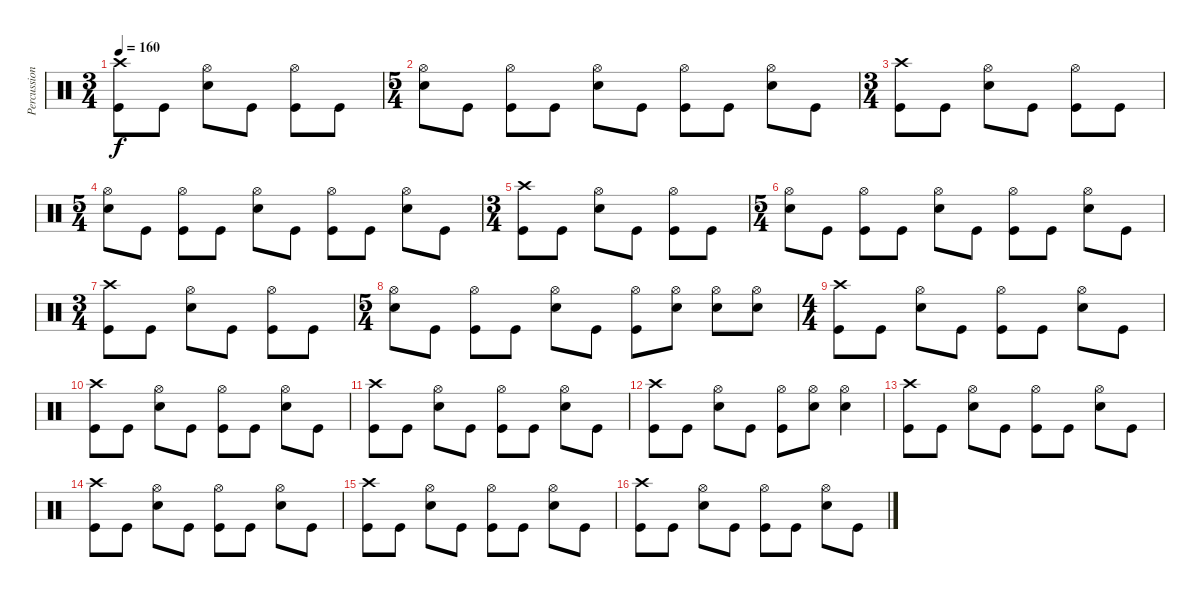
\track ("Percussion" "Percussion") {instrument percussion}
\staff {score}
\articulation defaults
\ts (3 4)
\tempo 160
\clef neutral
\ks c
("Crash high (hit)" "Kick (hit)").8{dy f} "Kick (hit)".8 ("Hi-Hat (open)" "Snare (hit) 2").8 "Kick (hit)".8 ("Hi-Hat (open)" "Kick (hit)").8 "Kick (hit)".8 |
\ts (5 4)
("Hi-Hat (open)" "Snare (hit) 2").8 "Kick (hit)".8 ("Hi-Hat (open)" "Kick (hit)").8 "Kick (hit)".8 ("Hi-Hat (open)" "Snare (hit) 2").8 "Kick (hit)".8 ("Hi-Hat (open)" "Kick (hit)").8 "Kick (hit)".8 ("Hi-Hat (open)" "Snare (hit) 2").8 "Kick (hit)".8 |
\ts (3 4)
("Crash high (hit)" "Kick (hit)").8 "Kick (hit)".8 ("Hi-Hat (open)" "Snare (hit) 2").8 "Kick (hit)".8 ("Hi-Hat (open)" "Kick (hit)").8 "Kick (hit)".8 |
\ts (5 4)
("Hi-Hat (open)" "Snare (hit) 2").8 "Kick (hit)".8 ("Hi-Hat (open)" "Kick (hit)").8 "Kick (hit)".8 ("Hi-Hat (open)" "Snare (hit) 2").8 "Kick (hit)".8 ("Hi-Hat (open)" "Kick (hit)").8 "Kick (hit)".8 ("Hi-Hat (open)" "Snare (hit) 2").8 "Kick (hit)".8 |
\ts (3 4)
("Crash high (hit)" "Kick (hit)").8 "Kick (hit)".8 ("Hi-Hat (open)" "Snare (hit) 2").8 "Kick (hit)".8 ("Hi-Hat (open)" "Kick (hit)").8 "Kick (hit)".8 |
\ts (5 4)
("Hi-Hat (open)" "Snare (hit) 2").8 "Kick (hit)".8 ("Hi-Hat (open)" "Kick (hit)").8 "Kick (hit)".8 ("Hi-Hat (open)" "Snare (hit) 2").8 "Kick (hit)".8 ("Hi-Hat (open)" "Kick (hit)").8 "Kick (hit)".8 ("Hi-Hat (open)" "Snare (hit) 2").8 "Kick (hit)".8 |
\ts (3 4)
("Crash high (hit)" "Kick (hit)").8 "Kick (hit)".8 ("Hi-Hat (open)" "Snare (hit) 2").8 "Kick (hit)".8 ("Hi-Hat (open)" "Kick (hit)").8 "Kick (hit)".8 |
\ts (5 4)
("Hi-Hat (open)" "Snare (hit) 2").8 "Kick (hit)".8 ("Hi-Hat (open)" "Kick (hit)").8 "Kick (hit)".8 ("Hi-Hat (open)" "Snare (hit) 2").8 "Kick (hit)".8 ("Hi-Hat (open)" "Kick (hit)").8 ("Hi-Hat (open)" "Snare (hit) 2").8 ("Hi-Hat (open)" "Snare (hit) 2").8 ("Hi-Hat (open)" "Snare (hit) 2").8 |
\ts (4 4)
("Crash high (hit)" "Kick (hit)").8 "Kick (hit)".8 ("Hi-Hat (open)" "Snare (hit) 2").8 "Kick (hit)".8 ("Hi-Hat (open)" "Kick (hit)").8 "Kick (hit)".8 ("Hi-Hat (open)" "Snare (hit) 2").8 "Kick (hit)".8 |
("Crash high (hit)" "Kick (hit)").8 "Kick (hit)".8 ("Hi-Hat (open)" "Snare (hit) 2").8 "Kick (hit)".8 ("Hi-Hat (open)" "Kick (hit)").8 "Kick (hit)".8 ("Hi-Hat (open)" "Snare (hit) 2").8 "Kick (hit)".8 |
("Crash high (hit)" "Kick (hit)").8 "Kick (hit)".8 ("Hi-Hat (open)" "Snare (hit) 2").8 "Kick (hit)".8 ("Hi-Hat (open)" "Kick (hit)").8 "Kick (hit)".8 ("Hi-Hat (open)" "Snare (hit) 2").8 "Kick (hit)".8 |
("Crash high (hit)" "Kick (hit)").8 "Kick (hit)".8 ("Hi-Hat (open)" "Snare (hit) 2").8 "Kick (hit)".8 ("Hi-Hat (open)" "Kick (hit)").8 ("Hi-Hat (open)" "Snare (hit) 2").8 ("Hi-Hat (open)" "Snare (hit) 2").4 |
("Crash high (hit)" "Kick (hit)").8 "Kick (hit)".8 ("Hi-Hat (open)" "Snare (hit) 2").8 "Kick (hit)".8 ("Hi-Hat (open)" "Kick (hit)").8 "Kick (hit)".8 ("Hi-Hat (open)" "Snare (hit) 2").8 "Kick (hit)".8 |
("Crash high (hit)" "Kick (hit)").8 "Kick (hit)".8 ("Hi-Hat (open)" "Snare (hit) 2").8 "Kick (hit)".8 ("Hi-Hat (open)" "Kick (hit)").8 "Kick (hit)".8 ("Hi-Hat (open)" "Snare (hit) 2").8 "Kick (hit)".8 |
("Crash high (hit)" "Kick (hit)").8 "Kick (hit)".8 ("Hi-Hat (open)" "Snare (hit) 2").8 "Kick (hit)".8 ("Hi-Hat (open)" "Kick (hit)").8 "Kick (hit)".8 ("Hi-Hat (open)" "Snare (hit) 2").8 "Kick (hit)".8 |
("Crash high (hit)" "Kick (hit)").8 "Kick (hit)".8 ("Hi-Hat (open)" "Snare (hit) 2").8 "Kick (hit)".8 ("Hi-Hat (open)" "Kick (hit)").8 "Kick (hit)".8 ("Hi-Hat (open)" "Snare (hit) 2").8 "Kick (hit)".8
